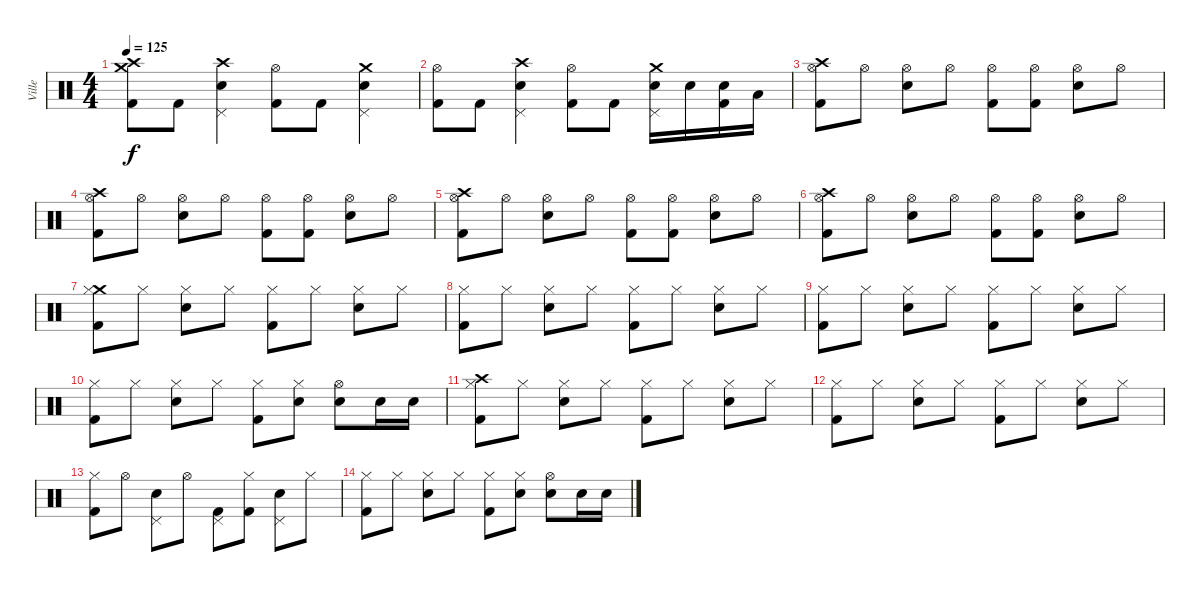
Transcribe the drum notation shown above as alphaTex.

\track ("Ville" "Ville") {instrument percussion}
\staff {score}
\articulation defaults
\ts (4 4)
\tempo 125
\clef neutral
\ks c
("Crash medium (hit)" "Crash high (hit)" "Kick (hit) 2").8{dy f} "Kick (hit) 2".8 ("Crash high (hit)" "Pedal Hi-Hat (hit)" "Snare (hit) 2").4 ("Hi-Hat (open)" "Kick (hit) 2").8 "Kick (hit) 2".8 ("Crash medium (hit)" "Pedal Hi-Hat (hit)" "Snare (hit) 2").4 |
("Hi-Hat (open)" "Kick (hit) 2").8 "Kick (hit) 2".8 ("Crash high (hit)" "Pedal Hi-Hat (hit)" "Snare (hit) 2").4 ("Hi-Hat (open)" "Kick (hit) 2").8 "Kick (hit) 2".8 ("Crash medium (hit)" "Pedal Hi-Hat (hit)" "Snare (hit) 2").16 "Snare (hit) 2".16 ("Snare (hit) 2" "Kick (hit) 2").16 "Low Tom (hit)".16 |
("Crash high (hit)" "Hi-Hat (open)" "Kick (hit) 2").8 "Hi-Hat (open)".8 ("Hi-Hat (open)" "Snare (hit) 2").8 "Hi-Hat (open)".8 ("Hi-Hat (open)" "Kick (hit) 2").8 ("Hi-Hat (open)" "Kick (hit) 2").8 ("Hi-Hat (open)" "Snare (hit) 2").8 "Hi-Hat (open)".8 |
("Crash high (hit)" "Hi-Hat (open)" "Kick (hit) 2").8 "Hi-Hat (open)".8 ("Hi-Hat (open)" "Snare (hit) 2").8 "Hi-Hat (open)".8 ("Hi-Hat (open)" "Kick (hit) 2").8 ("Hi-Hat (open)" "Kick (hit) 2").8 ("Hi-Hat (open)" "Snare (hit) 2").8 "Hi-Hat (open)".8 |
("Crash high (hit)" "Hi-Hat (open)" "Kick (hit) 2").8 "Hi-Hat (open)".8 ("Hi-Hat (open)" "Snare (hit) 2").8 "Hi-Hat (open)".8 ("Hi-Hat (open)" "Kick (hit) 2").8 ("Hi-Hat (open)" "Kick (hit) 2").8 ("Hi-Hat (open)" "Snare (hit) 2").8 "Hi-Hat (open)".8 |
("Crash high (hit)" "Hi-Hat (open)" "Kick (hit) 2").8 "Hi-Hat (open)".8 ("Hi-Hat (open)" "Snare (hit) 2").8 "Hi-Hat (open)".8 ("Hi-Hat (open)" "Kick (hit) 2").8 ("Hi-Hat (open)" "Kick (hit) 2").8 ("Hi-Hat (open)" "Snare (hit) 2").8 "Hi-Hat (open)".8 |
("Crash medium (hit)" "Hi-Hat (closed)" "Kick (hit) 2").8 "Hi-Hat (closed)".8 ("Hi-Hat (closed)" "Snare (hit) 2").8 "Hi-Hat (closed)".8 ("Hi-Hat (closed)" "Kick (hit) 2").8 "Hi-Hat (closed)".8 ("Hi-Hat (closed)" "Snare (hit) 2").8 "Hi-Hat (closed)".8 |
("Hi-Hat (closed)" "Kick (hit) 2").8 "Hi-Hat (closed)".8 ("Hi-Hat (closed)" "Snare (hit) 2").8 "Hi-Hat (closed)".8 ("Hi-Hat (closed)" "Kick (hit) 2").8 "Hi-Hat (closed)".8 ("Hi-Hat (closed)" "Snare (hit) 2").8 "Hi-Hat (closed)".8 |
("Hi-Hat (closed)" "Kick (hit) 2").8 "Hi-Hat (closed)".8 ("Hi-Hat (closed)" "Snare (hit) 2").8 "Hi-Hat (closed)".8 ("Hi-Hat (closed)" "Kick (hit) 2").8 "Hi-Hat (closed)".8 ("Hi-Hat (closed)" "Snare (hit) 2").8 "Hi-Hat (closed)".8 |
("Hi-Hat (closed)" "Kick (hit) 2").8 "Hi-Hat (closed)".8 ("Hi-Hat (closed)" "Snare (hit) 2").8 "Hi-Hat (closed)".8 ("Hi-Hat (closed)" "Kick (hit) 2").8 ("Hi-Hat (closed)" "Snare (hit) 2").8 ("Hi-Hat (open)" "Snare (hit) 2").8 "Snare (hit) 2".16 "Snare (hit) 2".16 |
("Crash high (hit)" "Hi-Hat (closed)" "Kick (hit) 2").8 "Hi-Hat (closed)".8 ("Hi-Hat (closed)" "Snare (hit) 2").8 "Hi-Hat (closed)".8 ("Hi-Hat (closed)" "Kick (hit) 2").8 "Hi-Hat (closed)".8 ("Hi-Hat (closed)" "Snare (hit) 2").8 "Hi-Hat (closed)".8 |
("Hi-Hat (closed)" "Kick (hit) 2").8 "Hi-Hat (closed)".8 ("Hi-Hat (closed)" "Snare (hit) 2").8 "Hi-Hat (closed)".8 ("Hi-Hat (closed)" "Kick (hit) 2").8 "Hi-Hat (closed)".8 ("Hi-Hat (closed)" "Snare (hit) 2").8 "Hi-Hat (closed)".8 |
("Hi-Hat (closed)" "Kick (hit) 2").8 "Hi-Hat (open)".8 ("Pedal Hi-Hat (hit)" "Snare (hit) 2").8 "Hi-Hat (open)".8 ("Pedal Hi-Hat (hit)" "Kick (hit) 2").8 ("Hi-Hat (closed)" "Kick (hit) 2").8 ("Pedal Hi-Hat (hit)" "Snare (hit) 2").8 "Hi-Hat (closed)".8 |
("Hi-Hat (closed)" "Kick (hit) 2").8 "Hi-Hat (closed)".8 ("Hi-Hat (closed)" "Snare (hit) 2").8 "Hi-Hat (closed)".8 ("Hi-Hat (closed)" "Kick (hit) 2").8 ("Hi-Hat (closed)" "Snare (hit) 2").8 ("Hi-Hat (open)" "Snare (hit) 2").8 "Snare (hit) 2".16 "Snare (hit) 2".16
